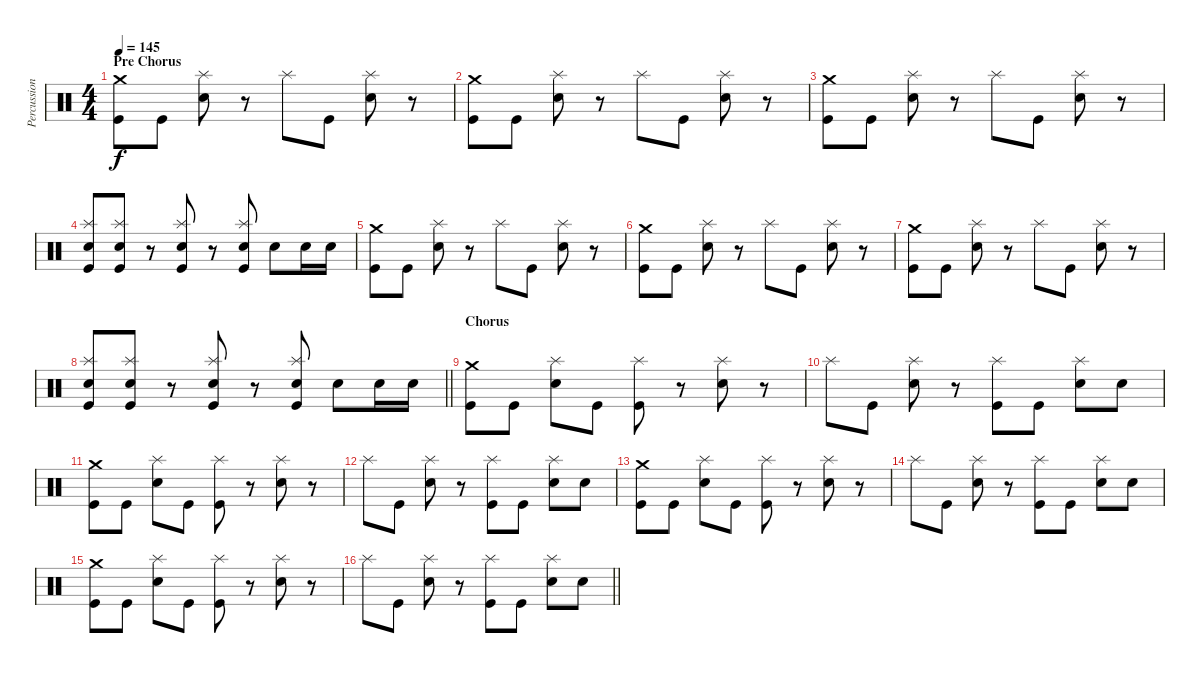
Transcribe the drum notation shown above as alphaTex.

\track ("Percussion" "Percussion") {instrument percussion}
\staff {score}
\articulation defaults
\ts (4 4)
\section ("" "Pre Chorus")
\tempo 145
\clef neutral
\ks c
("Crash medium (hit)" "Kick (hit)").8{dy f} "Kick (hit)".8 ("Splash (hit)" "Snare (hit) 2").8 r.8 "Splash (hit)".8 "Kick (hit)".8 ("Splash (hit)" "Snare (hit) 2").8 r.8 |
("Crash medium (hit)" "Kick (hit)").8 "Kick (hit)".8 ("Splash (hit)" "Snare (hit) 2").8 r.8 "Splash (hit)".8 "Kick (hit)".8 ("Splash (hit)" "Snare (hit) 2").8 r.8 |
("Crash medium (hit)" "Kick (hit)").8 "Kick (hit)".8 ("Splash (hit)" "Snare (hit) 2").8 r.8 "Splash (hit)".8 "Kick (hit)".8 ("Splash (hit)" "Snare (hit) 2").8 r.8 |
("Splash (hit)" "Snare (hit) 2" "Kick (hit)").8 ("Splash (hit)" "Snare (hit) 2" "Kick (hit)").8 r.8 ("Splash (hit)" "Snare (hit) 2" "Kick (hit)").8 r.8 ("Splash (hit)" "Snare (hit) 2" "Kick (hit)").8 "Snare (hit) 2".8 "Snare (hit) 2".16 "Snare (hit) 2".16 |
("Crash medium (hit)" "Kick (hit)").8 "Kick (hit)".8 ("Splash (hit)" "Snare (hit) 2").8 r.8 "Splash (hit)".8 "Kick (hit)".8 ("Splash (hit)" "Snare (hit) 2").8 r.8 |
("Crash medium (hit)" "Kick (hit)").8 "Kick (hit)".8 ("Splash (hit)" "Snare (hit) 2").8 r.8 "Splash (hit)".8 "Kick (hit)".8 ("Splash (hit)" "Snare (hit) 2").8 r.8 |
("Crash medium (hit)" "Kick (hit)").8 "Kick (hit)".8 ("Splash (hit)" "Snare (hit) 2").8 r.8 "Splash (hit)".8 "Kick (hit)".8 ("Splash (hit)" "Snare (hit) 2").8 r.8 |
\barLineRight lightlight
("Splash (hit)" "Snare (hit) 2" "Kick (hit)").8 ("Splash (hit)" "Snare (hit) 2" "Kick (hit)").8 r.8 ("Splash (hit)" "Snare (hit) 2" "Kick (hit)").8 r.8 ("Splash (hit)" "Snare (hit) 2" "Kick (hit)").8 "Snare (hit) 2".8 "Snare (hit) 2".16 "Snare (hit) 2".16 |
\section ("" "Chorus")
("Crash medium (hit)" "Kick (hit)").8 "Kick (hit)".8 ("Splash (hit)" "Snare (hit) 2").8 "Kick (hit)".8 ("Splash (hit)" "Kick (hit)").8 r.8 ("Splash (hit)" "Snare (hit) 2").8 r.8 |
"Splash (hit)".8 "Kick (hit)".8 ("Splash (hit)" "Snare (hit) 2").8 r.8 ("Splash (hit)" "Kick (hit)").8 "Kick (hit)".8 ("Splash (hit)" "Snare (hit) 2").8 "Snare (hit) 2".8 |
("Crash medium (hit)" "Kick (hit)").8 "Kick (hit)".8 ("Splash (hit)" "Snare (hit) 2").8 "Kick (hit)".8 ("Splash (hit)" "Kick (hit)").8 r.8 ("Splash (hit)" "Snare (hit) 2").8 r.8 |
"Splash (hit)".8 "Kick (hit)".8 ("Splash (hit)" "Snare (hit) 2").8 r.8 ("Splash (hit)" "Kick (hit)").8 "Kick (hit)".8 ("Splash (hit)" "Snare (hit) 2").8 "Snare (hit) 2".8 |
("Crash medium (hit)" "Kick (hit)").8 "Kick (hit)".8 ("Splash (hit)" "Snare (hit) 2").8 "Kick (hit)".8 ("Splash (hit)" "Kick (hit)").8 r.8 ("Splash (hit)" "Snare (hit) 2").8 r.8 |
"Splash (hit)".8 "Kick (hit)".8 ("Splash (hit)" "Snare (hit) 2").8 r.8 ("Splash (hit)" "Kick (hit)").8 "Kick (hit)".8 ("Splash (hit)" "Snare (hit) 2").8 "Snare (hit) 2".8 |
("Crash medium (hit)" "Kick (hit)").8 "Kick (hit)".8 ("Splash (hit)" "Snare (hit) 2").8 "Kick (hit)".8 ("Splash (hit)" "Kick (hit)").8 r.8 ("Splash (hit)" "Snare (hit) 2").8 r.8 |
\barLineRight lightlight "Splash (hit)".8 "Kick (hit)".8
("Splash (hit)" "Snare (hit) 2").8 r.8 ("Splash (hit)" "Kick (hit)").8 "Kick (hit)".8 ("Splash (hit)" "Snare (hit) 2").8 "Snare (hit) 2".8
